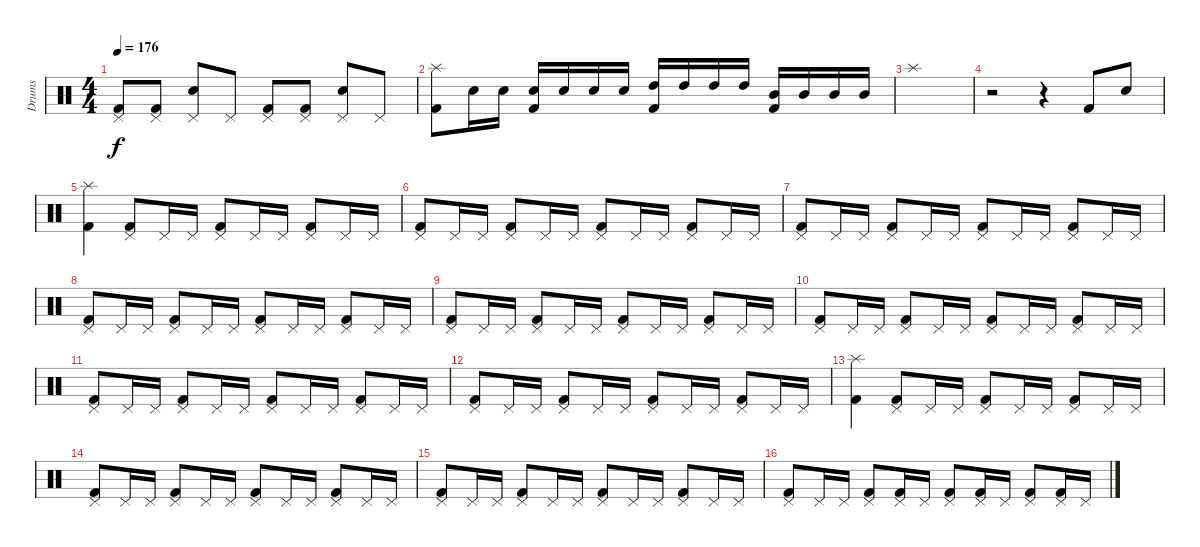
\track ("Drums" "Drums") {instrument percussion}
\staff {score}
\articulation defaults
\ts (4 4)
\tempo 176
\clef neutral
\ks c
("Pedal Hi-Hat (hit)" "Kick (hit) 2").8{dy f} ("Pedal Hi-Hat (hit)" "Kick (hit) 2").8 ("Pedal Hi-Hat (hit)" "Snare (hit) 2").8 "Pedal Hi-Hat (hit)".8 ("Pedal Hi-Hat (hit)" "Kick (hit) 2").8 ("Pedal Hi-Hat (hit)" "Kick (hit) 2").8 ("Snare (hit) 2" "Pedal Hi-Hat (hit)").8 "Pedal Hi-Hat (hit)".8 |
("Splash (hit)" "Kick (hit) 2").8 "Snare (hit) 2".16 "Snare (hit) 2".16 ("Kick (hit) 2" "Snare (hit) 2").16 "Snare (hit) 2".16 "Snare (hit) 2".16 "Snare (hit) 2".16 ("High Tom (hit)" "Kick (hit) 2").16 "High Tom (hit)".16 "High Tom (hit)".16 "High Tom (hit)".16 ("Mid Tom (hit)" "Kick (hit) 2").16 "Mid Tom (hit)".16 "Mid Tom (hit)".16 "Mid Tom (hit)".16 |
"Splash (hit)".1 |
r.2 r.4 "Kick (hit) 2".8 "Snare (hit) 2".8 |
("Splash (hit)" "Kick (hit) 2").4 ("Pedal Hi-Hat (hit)" "Kick (hit) 2").8 "Pedal Hi-Hat (hit)".16 "Pedal Hi-Hat (hit)".16 ("Pedal Hi-Hat (hit)" "Kick (hit) 2").8 "Pedal Hi-Hat (hit)".16 "Pedal Hi-Hat (hit)".16 ("Pedal Hi-Hat (hit)" "Kick (hit) 2").8 "Pedal Hi-Hat (hit)".16 "Pedal Hi-Hat (hit)".16 |
("Pedal Hi-Hat (hit)" "Kick (hit) 2").8 "Pedal Hi-Hat (hit)".16 "Pedal Hi-Hat (hit)".16 ("Pedal Hi-Hat (hit)" "Kick (hit) 2").8 "Pedal Hi-Hat (hit)".16 "Pedal Hi-Hat (hit)".16 ("Pedal Hi-Hat (hit)" "Kick (hit) 2").8 "Pedal Hi-Hat (hit)".16 "Pedal Hi-Hat (hit)".16 ("Pedal Hi-Hat (hit)" "Kick (hit) 2").8 "Pedal Hi-Hat (hit)".16 "Pedal Hi-Hat (hit)".16 |
("Pedal Hi-Hat (hit)" "Kick (hit) 2").8 "Pedal Hi-Hat (hit)".16 "Pedal Hi-Hat (hit)".16 ("Pedal Hi-Hat (hit)" "Kick (hit) 2").8 "Pedal Hi-Hat (hit)".16 "Pedal Hi-Hat (hit)".16 ("Pedal Hi-Hat (hit)" "Kick (hit) 2").8 "Pedal Hi-Hat (hit)".16 "Pedal Hi-Hat (hit)".16 ("Pedal Hi-Hat (hit)" "Kick (hit) 2").8 "Pedal Hi-Hat (hit)".16 "Pedal Hi-Hat (hit)".16 |
("Pedal Hi-Hat (hit)" "Kick (hit) 2").8 "Pedal Hi-Hat (hit)".16 "Pedal Hi-Hat (hit)".16 ("Pedal Hi-Hat (hit)" "Kick (hit) 2").8 "Pedal Hi-Hat (hit)".16 "Pedal Hi-Hat (hit)".16 ("Pedal Hi-Hat (hit)" "Kick (hit) 2").8 "Pedal Hi-Hat (hit)".16 "Pedal Hi-Hat (hit)".16 ("Pedal Hi-Hat (hit)" "Kick (hit) 2").8 "Pedal Hi-Hat (hit)".16 "Pedal Hi-Hat (hit)".16 |
("Pedal Hi-Hat (hit)" "Kick (hit) 2").8 "Pedal Hi-Hat (hit)".16 "Pedal Hi-Hat (hit)".16 ("Pedal Hi-Hat (hit)" "Kick (hit) 2").8 "Pedal Hi-Hat (hit)".16 "Pedal Hi-Hat (hit)".16 ("Pedal Hi-Hat (hit)" "Kick (hit) 2").8 "Pedal Hi-Hat (hit)".16 "Pedal Hi-Hat (hit)".16 ("Pedal Hi-Hat (hit)" "Kick (hit) 2").8 "Pedal Hi-Hat (hit)".16 "Pedal Hi-Hat (hit)".16 |
("Pedal Hi-Hat (hit)" "Kick (hit) 2").8 "Pedal Hi-Hat (hit)".16 "Pedal Hi-Hat (hit)".16 ("Pedal Hi-Hat (hit)" "Kick (hit) 2").8 "Pedal Hi-Hat (hit)".16 "Pedal Hi-Hat (hit)".16 ("Pedal Hi-Hat (hit)" "Kick (hit) 2").8 "Pedal Hi-Hat (hit)".16 "Pedal Hi-Hat (hit)".16 ("Pedal Hi-Hat (hit)" "Kick (hit) 2").8 "Pedal Hi-Hat (hit)".16 "Pedal Hi-Hat (hit)".16 |
("Pedal Hi-Hat (hit)" "Kick (hit) 2").8 "Pedal Hi-Hat (hit)".16 "Pedal Hi-Hat (hit)".16 ("Pedal Hi-Hat (hit)" "Kick (hit) 2").8 "Pedal Hi-Hat (hit)".16 "Pedal Hi-Hat (hit)".16 ("Pedal Hi-Hat (hit)" "Kick (hit) 2").8 "Pedal Hi-Hat (hit)".16 "Pedal Hi-Hat (hit)".16 ("Pedal Hi-Hat (hit)" "Kick (hit) 2").8 "Pedal Hi-Hat (hit)".16 "Pedal Hi-Hat (hit)".16 |
("Pedal Hi-Hat (hit)" "Kick (hit) 2").8 "Pedal Hi-Hat (hit)".16 "Pedal Hi-Hat (hit)".16 ("Pedal Hi-Hat (hit)" "Kick (hit) 2").8 "Pedal Hi-Hat (hit)".16 "Pedal Hi-Hat (hit)".16 ("Pedal Hi-Hat (hit)" "Kick (hit) 2").8 "Pedal Hi-Hat (hit)".16 "Pedal Hi-Hat (hit)".16 ("Pedal Hi-Hat (hit)" "Kick (hit) 2").8 "Pedal Hi-Hat (hit)".16 "Pedal Hi-Hat (hit)".16 |
("Splash (hit)" "Kick (hit) 2").4 ("Pedal Hi-Hat (hit)" "Kick (hit) 2").8 "Pedal Hi-Hat (hit)".16 "Pedal Hi-Hat (hit)".16 ("Pedal Hi-Hat (hit)" "Kick (hit) 2").8 "Pedal Hi-Hat (hit)".16 "Pedal Hi-Hat (hit)".16 ("Pedal Hi-Hat (hit)" "Kick (hit) 2").8 "Pedal Hi-Hat (hit)".16 "Pedal Hi-Hat (hit)".16 |
("Pedal Hi-Hat (hit)" "Kick (hit) 2").8 "Pedal Hi-Hat (hit)".16 "Pedal Hi-Hat (hit)".16 ("Pedal Hi-Hat (hit)" "Kick (hit) 2").8 "Pedal Hi-Hat (hit)".16 "Pedal Hi-Hat (hit)".16 ("Pedal Hi-Hat (hit)" "Kick (hit) 2").8 "Pedal Hi-Hat (hit)".16 "Pedal Hi-Hat (hit)".16 ("Pedal Hi-Hat (hit)" "Kick (hit) 2").8 "Pedal Hi-Hat (hit)".16 "Pedal Hi-Hat (hit)".16 |
("Pedal Hi-Hat (hit)" "Kick (hit) 2").8 "Pedal Hi-Hat (hit)".16 "Pedal Hi-Hat (hit)".16 ("Pedal Hi-Hat (hit)" "Kick (hit) 2").8 "Pedal Hi-Hat (hit)".16 "Pedal Hi-Hat (hit)".16 ("Pedal Hi-Hat (hit)" "Kick (hit) 2").8 "Pedal Hi-Hat (hit)".16 "Pedal Hi-Hat (hit)".16 ("Pedal Hi-Hat (hit)" "Kick (hit) 2").8 "Pedal Hi-Hat (hit)".16 "Pedal Hi-Hat (hit)".16 |
("Pedal Hi-Hat (hit)" "Kick (hit) 2").8 "Pedal Hi-Hat (hit)".16 "Pedal Hi-Hat (hit)".16 ("Pedal Hi-Hat (hit)" "Kick (hit) 2").8 ("Kick (hit) 2" "Pedal Hi-Hat (hit)").16 "Pedal Hi-Hat (hit)".16 ("Pedal Hi-Hat (hit)" "Kick (hit) 2").8 ("Pedal Hi-Hat (hit)" "Kick (hit) 2").16 "Pedal Hi-Hat (hit)".16 ("Pedal Hi-Hat (hit)" "Kick (hit) 2").8 ("Pedal Hi-Hat (hit)" "Kick (hit) 2").16 "Pedal Hi-Hat (hit)".16
